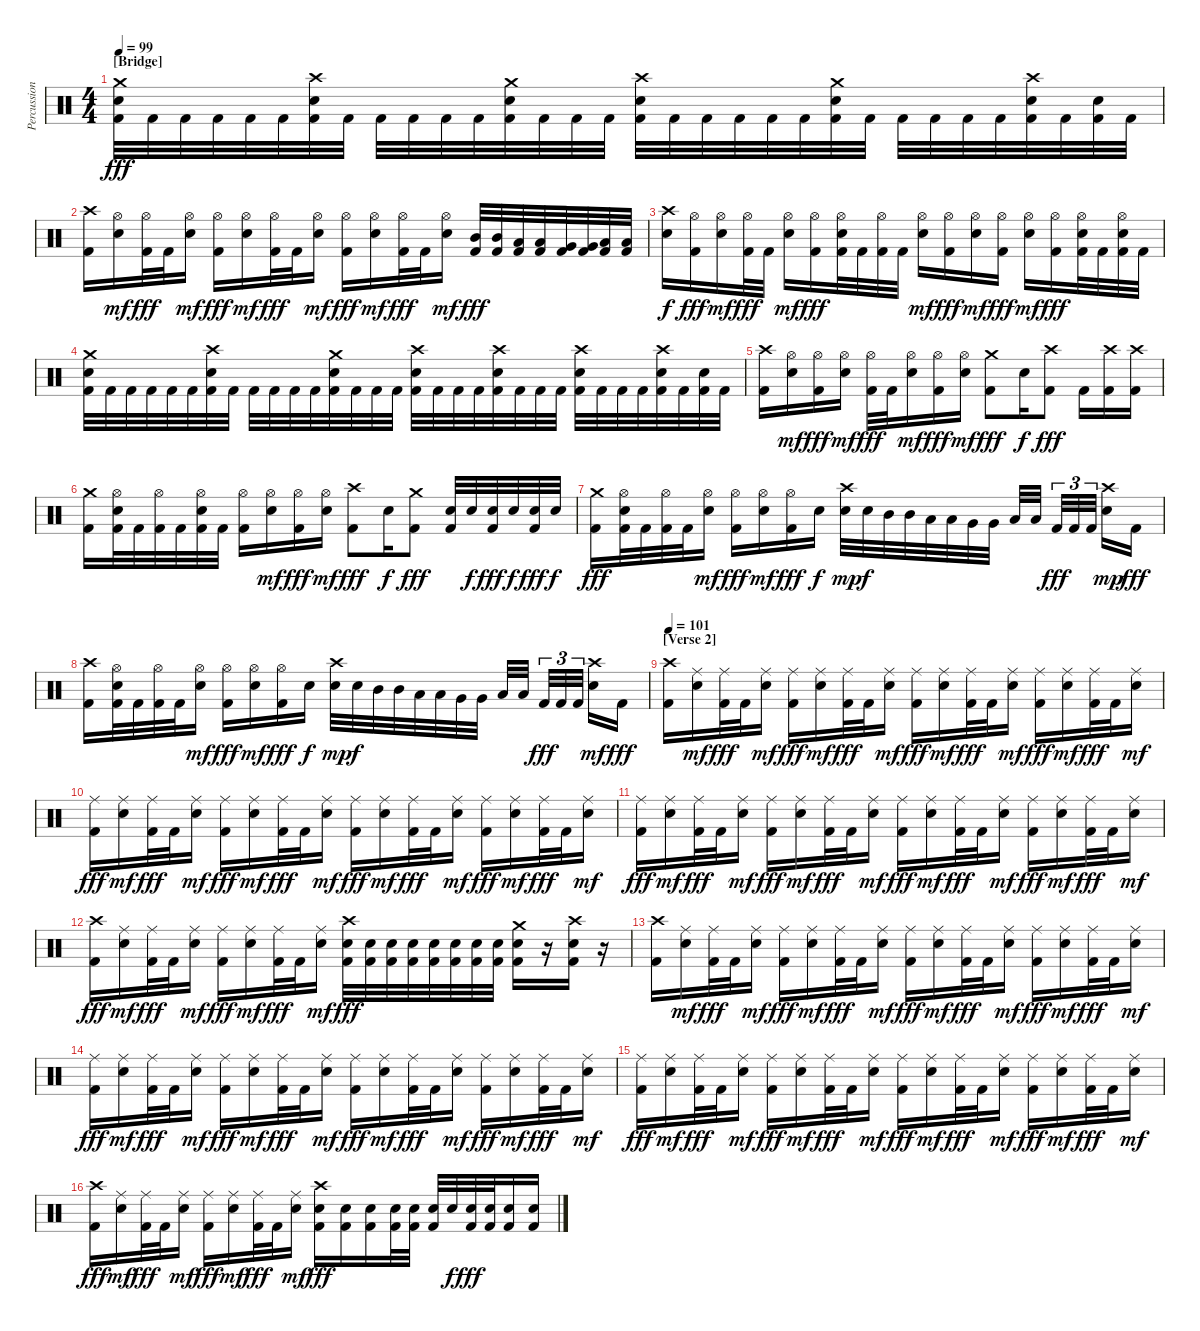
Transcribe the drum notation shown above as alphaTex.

\track ("Percussion" "Percussion") {instrument percussion}
\staff {score}
\articulation defaults
\ts (4 4)
\section ("" "[Bridge]")
\tempo 99
\clef neutral
\ks c
("Crash medium (hit)" "Snare (hit) 2" "Kick (hit) 2").32{dy fff} "Kick (hit) 2".32 "Kick (hit) 2".32 "Kick (hit) 2".32 "Kick (hit) 2".32 "Kick (hit) 2".32 ("Crash high (hit)" "Snare (hit) 2" "Kick (hit) 2").32 "Kick (hit) 2".32 "Kick (hit) 2".32 "Kick (hit) 2".32 "Kick (hit) 2".32 "Kick (hit) 2".32 ("Crash medium (hit)" "Snare (hit) 2" "Kick (hit) 2").32 "Kick (hit) 2".32 "Kick (hit) 2".32 "Kick (hit) 2".32 ("Crash high (hit)" "Snare (hit) 2" "Kick (hit) 2").32 "Kick (hit) 2".32 "Kick (hit) 2".32 "Kick (hit) 2".32 "Kick (hit) 2".32 "Kick (hit) 2".32 ("Crash medium (hit)" "Snare (hit) 2" "Kick (hit) 2").32 "Kick (hit) 2".32 "Kick (hit) 2".32 "Kick (hit) 2".32 "Kick (hit) 2".32 "Kick (hit) 2".32 ("Crash high (hit)" "Snare (hit) 2" "Kick (hit) 2").32 "Kick (hit) 2".32 ("Snare (hit) 2" "Kick (hit) 2").32 "Kick (hit) 2".32 |
("Crash high (hit)" "Kick (hit) 2").16 ("Hi-Hat (open)" "Snare (hit) 2").16{dy mf} ("Hi-Hat (open)" "Kick (hit) 2").32{dy fff} "Kick (hit) 2".32 ("Hi-Hat (open)" "Snare (hit) 2").16{dy mf} ("Hi-Hat (open)" "Kick (hit) 2").16{dy fff} ("Hi-Hat (open)" "Snare (hit) 2").16{dy mf} ("Hi-Hat (open)" "Kick (hit) 2").32{dy fff} "Kick (hit) 2".32 ("Hi-Hat (open)" "Snare (hit) 2").16{dy mf} ("Hi-Hat (open)" "Kick (hit) 2").16{dy fff} ("Hi-Hat (open)" "Snare (hit) 2").16{dy mf} ("Hi-Hat (open)" "Kick (hit) 2").32{dy fff} "Kick (hit) 2".32 ("Hi-Hat (open)" "Snare (hit) 2").16{dy mf} ("Mid Tom (hit)" "Kick (hit) 2").32{dy fff} ("Mid Tom (hit)" "Kick (hit) 2").32 ("Low Tom (hit)" "Kick (hit) 2").32 ("Low Tom (hit)" "Kick (hit) 2").32 ("Very Low Tom (hit)" "Kick (hit) 2").32 ("Very Low Tom (hit)" "Kick (hit) 2").32 ("Low Floor Tom (hit)" "Kick (hit) 2").32 ("Low Floor Tom (hit)" "Kick (hit) 2").32 |
("Crash high (hit)" "Snare (hit) 2").16{dy f} ("Hi-Hat (open)" "Kick (hit) 2").16{dy fff} ("Hi-Hat (open)" "Snare (hit) 2").16{dy mf} ("Hi-Hat (open)" "Kick (hit) 2").32{dy fff} "Kick (hit) 2".32 ("Hi-Hat (open)" "Snare (hit) 2").16{dy mf} ("Hi-Hat (open)" "Kick (hit) 2").16{dy fff} ("Hi-Hat (open)" "Snare (hit) 2" "Kick (hit) 2").32 "Kick (hit) 2".32 ("Hi-Hat (open)" "Kick (hit) 2").32 "Kick (hit) 2".32 ("Hi-Hat (open)" "Snare (hit) 2").16{dy mf} ("Hi-Hat (open)" "Kick (hit) 2").16{dy fff} ("Hi-Hat (open)" "Snare (hit) 2").16{dy mf} ("Hi-Hat (open)" "Kick (hit) 2").16{dy fff} ("Hi-Hat (open)" "Snare (hit) 2").16{dy mf} ("Hi-Hat (open)" "Kick (hit) 2").16{dy fff} ("Hi-Hat (open)" "Snare (hit) 2" "Kick (hit) 2").32 "Kick (hit) 2".32 ("Hi-Hat (open)" "Snare (hit) 2" "Kick (hit) 2").32 "Kick (hit) 2".32 |
("Crash medium (hit)" "Snare (hit) 2" "Kick (hit) 2").32 "Kick (hit) 2".32 "Kick (hit) 2".32 "Kick (hit) 2".32 "Kick (hit) 2".32 "Kick (hit) 2".32 ("Crash high (hit)" "Snare (hit) 2" "Kick (hit) 2").32 "Kick (hit) 2".32 "Kick (hit) 2".32 "Kick (hit) 2".32 "Kick (hit) 2".32 "Kick (hit) 2".32 ("Crash medium (hit)" "Snare (hit) 2" "Kick (hit) 2").32 "Kick (hit) 2".32 "Kick (hit) 2".32 "Kick (hit) 2".32 ("Crash high (hit)" "Snare (hit) 2" "Kick (hit) 2").32 "Kick (hit) 2".32 "Kick (hit) 2".32 "Kick (hit) 2".32 ("Crash high (hit)" "Snare (hit) 2" "Kick (hit) 2").32 "Kick (hit) 2".32 "Kick (hit) 2".32 "Kick (hit) 2".32 ("Crash high (hit)" "Snare (hit) 2" "Kick (hit) 2").32 "Kick (hit) 2".32 "Kick (hit) 2".32 "Kick (hit) 2".32 ("Crash high (hit)" "Snare (hit) 2" "Kick (hit) 2").32 "Kick (hit) 2".32 ("Snare (hit) 2" "Kick (hit) 2").32 "Kick (hit) 2".32 |
\section ("" "")
("Crash high (hit)" "Kick (hit) 2").16 ("Hi-Hat (open)" "Snare (hit) 2").16{dy mf} ("Hi-Hat (open)" "Kick (hit) 2").16{dy fff} ("Hi-Hat (open)" "Snare (hit) 2").16{dy mf} ("Hi-Hat (open)" "Kick (hit) 2").32{dy fff} "Kick (hit) 2".32 ("Hi-Hat (open)" "Snare (hit) 2").16{dy mf} ("Hi-Hat (open)" "Kick (hit) 2").16{dy fff} ("Hi-Hat (open)" "Snare (hit) 2").16{dy mf} ("Crash medium (hit)" "Kick (hit) 2").8{dy fff} "Snare (hit) 2".16{dy f} ("Crash high (hit)" "Kick (hit) 2").8{dy fff} "Kick (hit) 2".16 ("Crash high (hit)" "Kick (hit) 2").16 ("Crash high (hit)" "Kick (hit) 2").16 |
("Crash medium (hit)" "Kick (hit) 2").16 ("Hi-Hat (open)" "Snare (hit) 2" "Kick (hit) 2").32 "Kick (hit) 2".32 ("Hi-Hat (open)" "Kick (hit) 2").32 "Kick (hit) 2".32 ("Hi-Hat (open)" "Snare (hit) 2" "Kick (hit) 2").32 "Kick (hit) 2".32 ("Hi-Hat (open)" "Kick (hit) 2").16 ("Hi-Hat (open)" "Snare (hit) 2").16{dy mf} ("Hi-Hat (open)" "Kick (hit) 2").16{dy fff} ("Hi-Hat (open)" "Snare (hit) 2").16{dy mf} ("Crash high (hit)" "Kick (hit) 2").8{dy fff} "Snare (hit) 2".16{dy f} ("Crash medium (hit)" "Kick (hit) 2").8{dy fff} ("Snare (hit) 2" "Kick (hit) 2").32 "Snare (hit) 2".32{dy f} ("Snare (hit) 2" "Kick (hit) 2").32{dy fff} "Snare (hit) 2".32{dy f} ("Snare (hit) 2" "Kick (hit) 2").32{dy fff} "Snare (hit) 2".32{dy f} |
("Crash medium (hit)" "Kick (hit) 2").16{dy fff} ("Hi-Hat (open)" "Snare (hit) 2" "Kick (hit) 2").32 "Kick (hit) 2".32 ("Hi-Hat (open)" "Kick (hit) 2").32 "Kick (hit) 2".32 ("Hi-Hat (open)" "Snare (hit) 2").16{dy mf} ("Hi-Hat (open)" "Kick (hit) 2").16{dy fff} ("Hi-Hat (open)" "Snare (hit) 2").16{dy mf} ("Hi-Hat (open)" "Kick (hit) 2").16{dy fff} "Snare (hit) 2".16{dy f} ("Crash high (hit)" "Snare (hit) 2").32{dy mp} "Snare (hit) 2".32{dy f} "Mid Tom (hit)".32 "Mid Tom (hit)".32 "Low Tom (hit)".32 "Low Tom (hit)".32 "Very Low Tom (hit)".32 "Very Low Tom (hit)".32 "Low Floor Tom (hit)".32 "Low Floor Tom (hit)".32 "Kick (hit) 2".32{tu (3 2) dy fff} "Kick (hit) 2".32{tu (3 2)} "Kick (hit) 2".32{tu (3 2)} ("Crash high (hit)" "Snare (hit) 2").16{dy mp} "Kick (hit) 2".16{dy fff} |
("Crash high (hit)" "Kick (hit) 2").16 ("Hi-Hat (open)" "Snare (hit) 2" "Kick (hit) 2").32 "Kick (hit) 2".32 ("Hi-Hat (open)" "Kick (hit) 2").32 "Kick (hit) 2".32 ("Hi-Hat (open)" "Snare (hit) 2").16{dy mf} ("Hi-Hat (open)" "Kick (hit) 2").16{dy fff} ("Hi-Hat (open)" "Snare (hit) 2").16{dy mf} ("Hi-Hat (open)" "Kick (hit) 2").16{dy fff} "Snare (hit) 2".16{dy f} ("Crash high (hit)" "Snare (hit) 2").32{dy mp} "Snare (hit) 2".32{dy f} "Mid Tom (hit)".32 "Mid Tom (hit)".32 "Low Tom (hit)".32 "Low Tom (hit)".32 "Very Low Tom (hit)".32 "Very Low Tom (hit)".32 "Low Floor Tom (hit)".32 "Low Floor Tom (hit)".32 "Kick (hit) 2".32{tu (3 2) dy fff} "Kick (hit) 2".32{tu (3 2)} "Kick (hit) 2".32{tu (3 2)} ("Crash high (hit)" "Snare (hit) 2").16{dy mf} "Kick (hit) 2".16{dy fff} |
\section ("" "[Verse 2]")
\tempo 101
("Crash high (hit)" "Kick (hit) 2").16 ("Ride (middle)" "Snare (hit) 2").16{dy mf} ("Ride (middle)" "Kick (hit) 2").32{dy fff} "Kick (hit) 2".32 ("Ride (middle)" "Snare (hit) 2").16{dy mf} ("Ride (middle)" "Kick (hit) 2").16{dy fff} ("Ride (middle)" "Snare (hit) 2").16{dy mf} ("Ride (middle)" "Kick (hit) 2").32{dy fff} "Kick (hit) 2".32 ("Ride (middle)" "Snare (hit) 2").16{dy mf} ("Ride (middle)" "Kick (hit) 2").16{dy fff} ("Ride (middle)" "Snare (hit) 2").16{dy mf} ("Ride (middle)" "Kick (hit) 2").32{dy fff} "Kick (hit) 2".32 ("Ride (middle)" "Snare (hit) 2").16{dy mf} ("Ride (middle)" "Kick (hit) 2").16{dy fff} ("Ride (middle)" "Snare (hit) 2").16{dy mf} ("Ride (middle)" "Kick (hit) 2").32{dy fff} "Kick (hit) 2".32 ("Ride (middle)" "Snare (hit) 2").16{dy mf} |
("Ride (middle)" "Kick (hit) 2").16{dy fff} ("Ride (middle)" "Snare (hit) 2").16{dy mf} ("Ride (middle)" "Kick (hit) 2").32{dy fff} "Kick (hit) 2".32 ("Ride (middle)" "Snare (hit) 2").16{dy mf} ("Ride (middle)" "Kick (hit) 2").16{dy fff} ("Ride (middle)" "Snare (hit) 2").16{dy mf} ("Ride (middle)" "Kick (hit) 2").32{dy fff} "Kick (hit) 2".32 ("Ride (middle)" "Snare (hit) 2").16{dy mf} ("Ride (middle)" "Kick (hit) 2").16{dy fff} ("Ride (middle)" "Snare (hit) 2").16{dy mf} ("Ride (middle)" "Kick (hit) 2").32{dy fff} "Kick (hit) 2".32 ("Ride (middle)" "Snare (hit) 2").16{dy mf} ("Ride (middle)" "Kick (hit) 2").16{dy fff} ("Ride (middle)" "Snare (hit) 2").16{dy mf} ("Ride (middle)" "Kick (hit) 2").32{dy fff} "Kick (hit) 2".32 ("Ride (middle)" "Snare (hit) 2").16{dy mf} |
("Ride (middle)" "Kick (hit) 2").16{dy fff} ("Ride (middle)" "Snare (hit) 2").16{dy mf} ("Ride (middle)" "Kick (hit) 2").32{dy fff} "Kick (hit) 2".32 ("Ride (middle)" "Snare (hit) 2").16{dy mf} ("Ride (middle)" "Kick (hit) 2").16{dy fff} ("Ride (middle)" "Snare (hit) 2").16{dy mf} ("Ride (middle)" "Kick (hit) 2").32{dy fff} "Kick (hit) 2".32 ("Ride (middle)" "Snare (hit) 2").16{dy mf} ("Ride (middle)" "Kick (hit) 2").16{dy fff} ("Ride (middle)" "Snare (hit) 2").16{dy mf} ("Ride (middle)" "Kick (hit) 2").32{dy fff} "Kick (hit) 2".32 ("Ride (middle)" "Snare (hit) 2").16{dy mf} ("Ride (middle)" "Kick (hit) 2").16{dy fff} ("Ride (middle)" "Snare (hit) 2").16{dy mf} ("Ride (middle)" "Kick (hit) 2").32{dy fff} "Kick (hit) 2".32 ("Ride (middle)" "Snare (hit) 2").16{dy mf} |
("Crash high (hit)" "Kick (hit) 2").16{dy fff} ("Ride (middle)" "Snare (hit) 2").16{dy mf} ("Ride (middle)" "Kick (hit) 2").32{dy fff} "Kick (hit) 2".32 ("Ride (middle)" "Snare (hit) 2").16{dy mf} ("Ride (middle)" "Kick (hit) 2").16{dy fff} ("Ride (middle)" "Snare (hit) 2").16{dy mf} ("Ride (middle)" "Kick (hit) 2").32{dy fff} "Kick (hit) 2".32 ("Ride (middle)" "Snare (hit) 2").16{dy mf} ("Crash high (hit)" "Snare (hit) 2" "Kick (hit) 2").32{dy fff} ("Snare (hit) 2" "Kick (hit) 2").32 ("Snare (hit) 2" "Kick (hit) 2").32 ("Snare (hit) 2" "Kick (hit) 2").32 ("Snare (hit) 2" "Kick (hit) 2").32 ("Snare (hit) 2" "Kick (hit) 2").32 ("Snare (hit) 2" "Kick (hit) 2").32 ("Snare (hit) 2" "Kick (hit) 2").32 ("Crash medium (hit)" "Snare (hit) 2" "Kick (hit) 2").16 r.16 ("Crash high (hit)" "Snare (hit) 2" "Kick (hit) 2").16 r.16 |
("Crash high (hit)" "Kick (hit) 2").16 ("Ride (middle)" "Snare (hit) 2").16{dy mf} ("Ride (middle)" "Kick (hit) 2").32{dy fff} "Kick (hit) 2".32 ("Ride (middle)" "Snare (hit) 2").16{dy mf} ("Ride (middle)" "Kick (hit) 2").16{dy fff} ("Ride (middle)" "Snare (hit) 2").16{dy mf} ("Ride (middle)" "Kick (hit) 2").32{dy fff} "Kick (hit) 2".32 ("Ride (middle)" "Snare (hit) 2").16{dy mf} ("Ride (middle)" "Kick (hit) 2").16{dy fff} ("Ride (middle)" "Snare (hit) 2").16{dy mf} ("Ride (middle)" "Kick (hit) 2").32{dy fff} "Kick (hit) 2".32 ("Ride (middle)" "Snare (hit) 2").16{dy mf} ("Ride (middle)" "Kick (hit) 2").16{dy fff} ("Ride (middle)" "Snare (hit) 2").16{dy mf} ("Ride (middle)" "Kick (hit) 2").32{dy fff} "Kick (hit) 2".32 ("Ride (middle)" "Snare (hit) 2").16{dy mf} |
("Ride (middle)" "Kick (hit) 2").16{dy fff} ("Ride (middle)" "Snare (hit) 2").16{dy mf} ("Ride (middle)" "Kick (hit) 2").32{dy fff} "Kick (hit) 2".32 ("Ride (middle)" "Snare (hit) 2").16{dy mf} ("Ride (middle)" "Kick (hit) 2").16{dy fff} ("Ride (middle)" "Snare (hit) 2").16{dy mf} ("Ride (middle)" "Kick (hit) 2").32{dy fff} "Kick (hit) 2".32 ("Ride (middle)" "Snare (hit) 2").16{dy mf} ("Ride (middle)" "Kick (hit) 2").16{dy fff} ("Ride (middle)" "Snare (hit) 2").16{dy mf} ("Ride (middle)" "Kick (hit) 2").32{dy fff} "Kick (hit) 2".32 ("Ride (middle)" "Snare (hit) 2").16{dy mf} ("Ride (middle)" "Kick (hit) 2").16{dy fff} ("Ride (middle)" "Snare (hit) 2").16{dy mf} ("Ride (middle)" "Kick (hit) 2").32{dy fff} "Kick (hit) 2".32 ("Ride (middle)" "Snare (hit) 2").16{dy mf} |
("Ride (middle)" "Kick (hit) 2").16{dy fff} ("Ride (middle)" "Snare (hit) 2").16{dy mf} ("Ride (middle)" "Kick (hit) 2").32{dy fff} "Kick (hit) 2".32 ("Ride (middle)" "Snare (hit) 2").16{dy mf} ("Ride (middle)" "Kick (hit) 2").16{dy fff} ("Ride (middle)" "Snare (hit) 2").16{dy mf} ("Ride (middle)" "Kick (hit) 2").32{dy fff} "Kick (hit) 2".32 ("Ride (middle)" "Snare (hit) 2").16{dy mf} ("Ride (middle)" "Kick (hit) 2").16{dy fff} ("Ride (middle)" "Snare (hit) 2").16{dy mf} ("Ride (middle)" "Kick (hit) 2").32{dy fff} "Kick (hit) 2".32 ("Ride (middle)" "Snare (hit) 2").16{dy mf} ("Ride (middle)" "Kick (hit) 2").16{dy fff} ("Ride (middle)" "Snare (hit) 2").16{dy mf} ("Ride (middle)" "Kick (hit) 2").32{dy fff} "Kick (hit) 2".32 ("Ride (middle)" "Snare (hit) 2").16{dy mf} |
("Crash high (hit)" "Kick (hit) 2").16{dy fff} ("Ride (middle)" "Snare (hit) 2").16{dy mf} ("Ride (middle)" "Kick (hit) 2").32{dy fff} "Kick (hit) 2".32 ("Ride (middle)" "Snare (hit) 2").16{dy mf} ("Ride (middle)" "Kick (hit) 2").16{dy fff} ("Ride (middle)" "Snare (hit) 2").16{dy mf} ("Ride (middle)" "Kick (hit) 2").32{dy fff} "Kick (hit) 2".32 ("Ride (middle)" "Snare (hit) 2").16{dy mf} ("Crash high (hit)" "Snare (hit) 2" "Kick (hit) 2").16{dy fff} ("Snare (hit) 2" "Kick (hit) 2").16 ("Snare (hit) 2" "Kick (hit) 2").16 ("Snare (hit) 2" "Kick (hit) 2").32 ("Snare (hit) 2" "Kick (hit) 2").32 ("Snare (hit) 2" "Kick (hit) 2").32 "Snare (hit) 2".32{dy f} ("Snare (hit) 2" "Kick (hit) 2").32{dy fff} ("Snare (hit) 2" "Kick (hit) 2").32 ("Snare (hit) 2" "Kick (hit) 2").16 ("Snare (hit) 2" "Kick (hit) 2").16
